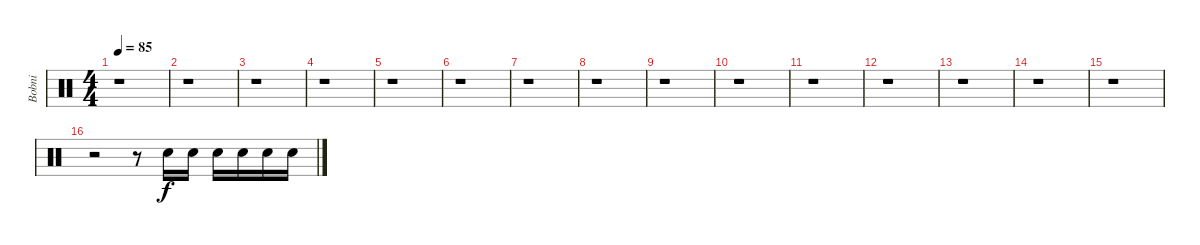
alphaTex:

\track ("Bobni" "Bobni") {instrument percussion}
\staff {score}
\articulation defaults
\ts (4 4)
\tempo 85
\clef neutral
\ks c
r.1{dy f} |
r.1 |
r.1 |
r.1 |
r.1 |
r.1 |
r.1 |
r.1 |
r.1 |
r.1 |
r.1 |
r.1 |
r.1 |
r.1 |
r.1 |
r.2 r.8 "Snare (hit) 2".16 "Snare (hit) 2".16 "Snare (hit) 2".16 "Snare (hit) 2".16 "Snare (hit) 2".16 "Snare (hit) 2".16
